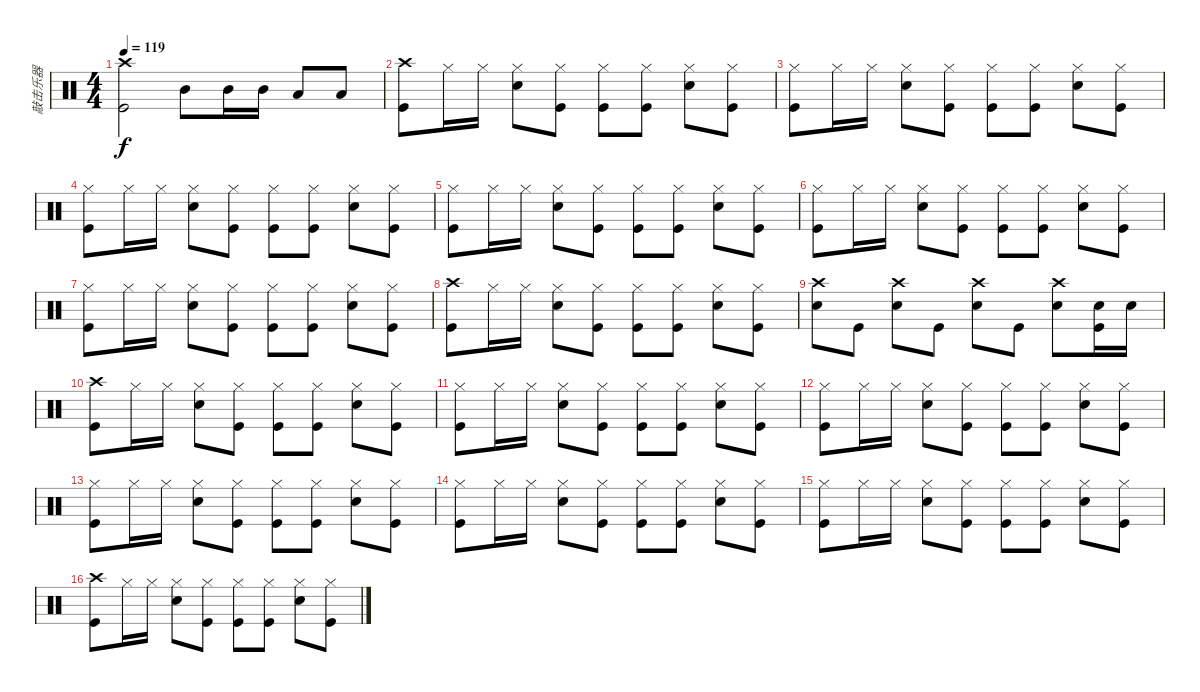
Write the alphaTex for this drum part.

\track ("敲击乐器" "敲击乐器") {instrument percussion}
\staff {score}
\articulation defaults
\ts (4 4)
\tempo 119
\clef neutral
\ks c
("Crash high (hit)" "Kick (hit)").2{dy f} "Mid Tom (hit)".8 "Mid Tom (hit)".16 "Mid Tom (hit)".16 "Low Tom (hit)".8 "Low Tom (hit)".8 |
("Crash high (hit)" "Kick (hit)").8 "Hi-Hat (closed)".16 "Hi-Hat (closed)".16 ("Hi-Hat (closed)" "Electric Snare (hit)").8 ("Hi-Hat (closed)" "Kick (hit)").8 ("Hi-Hat (closed)" "Kick (hit)").8 ("Hi-Hat (closed)" "Kick (hit)").8 ("Hi-Hat (closed)" "Electric Snare (hit)").8 ("Hi-Hat (closed)" "Kick (hit)").8 |
("Hi-Hat (closed)" "Kick (hit)").8 "Hi-Hat (closed)".16 "Hi-Hat (closed)".16 ("Hi-Hat (closed)" "Electric Snare (hit)").8 ("Hi-Hat (closed)" "Kick (hit)").8 ("Hi-Hat (closed)" "Kick (hit)").8 ("Hi-Hat (closed)" "Kick (hit)").8 ("Hi-Hat (closed)" "Electric Snare (hit)").8 ("Hi-Hat (closed)" "Kick (hit)").8 |
("Hi-Hat (closed)" "Kick (hit)").8 "Hi-Hat (closed)".16 "Hi-Hat (closed)".16 ("Hi-Hat (closed)" "Electric Snare (hit)").8 ("Hi-Hat (closed)" "Kick (hit)").8 ("Hi-Hat (closed)" "Kick (hit)").8 ("Hi-Hat (closed)" "Kick (hit)").8 ("Hi-Hat (closed)" "Electric Snare (hit)").8 ("Hi-Hat (closed)" "Kick (hit)").8 |
("Hi-Hat (closed)" "Kick (hit)").8 "Hi-Hat (closed)".16 "Hi-Hat (closed)".16 ("Hi-Hat (closed)" "Electric Snare (hit)").8 ("Hi-Hat (closed)" "Kick (hit)").8 ("Hi-Hat (closed)" "Kick (hit)").8 ("Hi-Hat (closed)" "Kick (hit)").8 ("Hi-Hat (closed)" "Electric Snare (hit)").8 ("Hi-Hat (closed)" "Kick (hit)").8 |
("Hi-Hat (closed)" "Kick (hit)").8 "Hi-Hat (closed)".16 "Hi-Hat (closed)".16 ("Hi-Hat (closed)" "Electric Snare (hit)").8 ("Hi-Hat (closed)" "Kick (hit)").8 ("Hi-Hat (closed)" "Kick (hit)").8 ("Hi-Hat (closed)" "Kick (hit)").8 ("Hi-Hat (closed)" "Electric Snare (hit)").8 ("Hi-Hat (closed)" "Kick (hit)").8 |
("Hi-Hat (closed)" "Kick (hit)").8 "Hi-Hat (closed)".16 "Hi-Hat (closed)".16 ("Hi-Hat (closed)" "Electric Snare (hit)").8 ("Hi-Hat (closed)" "Kick (hit)").8 ("Hi-Hat (closed)" "Kick (hit)").8 ("Hi-Hat (closed)" "Kick (hit)").8 ("Hi-Hat (closed)" "Electric Snare (hit)").8 ("Hi-Hat (closed)" "Kick (hit)").8 |
("Crash high (hit)" "Kick (hit)").8 "Hi-Hat (closed)".16 "Hi-Hat (closed)".16 ("Hi-Hat (closed)" "Electric Snare (hit)").8 ("Hi-Hat (closed)" "Kick (hit)").8 ("Hi-Hat (closed)" "Kick (hit)").8 ("Hi-Hat (closed)" "Kick (hit)").8 ("Hi-Hat (closed)" "Electric Snare (hit)").8 ("Hi-Hat (closed)" "Kick (hit)").8 |
("Crash high (hit)" "Electric Snare (hit)").8 "Kick (hit)".8 ("Crash high (hit)" "Electric Snare (hit)").8 "Kick (hit)".8 ("Crash high (hit)" "Electric Snare (hit)").8 "Kick (hit)".8 ("Crash high (hit)" "Electric Snare (hit)").8 ("Electric Snare (hit)" "Kick (hit)").16 "Electric Snare (hit)".16 |
("Crash high (hit)" "Kick (hit)").8 "Hi-Hat (closed)".16 "Hi-Hat (closed)".16 ("Hi-Hat (closed)" "Electric Snare (hit)").8 ("Hi-Hat (closed)" "Kick (hit)").8 ("Hi-Hat (closed)" "Kick (hit)").8 ("Hi-Hat (closed)" "Kick (hit)").8 ("Hi-Hat (closed)" "Electric Snare (hit)").8 ("Hi-Hat (closed)" "Kick (hit)").8 |
("Hi-Hat (closed)" "Kick (hit)").8 "Hi-Hat (closed)".16 "Hi-Hat (closed)".16 ("Hi-Hat (closed)" "Electric Snare (hit)").8 ("Hi-Hat (closed)" "Kick (hit)").8 ("Hi-Hat (closed)" "Kick (hit)").8 ("Hi-Hat (closed)" "Kick (hit)").8 ("Hi-Hat (closed)" "Electric Snare (hit)").8 ("Hi-Hat (closed)" "Kick (hit)").8 |
("Hi-Hat (closed)" "Kick (hit)").8 "Hi-Hat (closed)".16 "Hi-Hat (closed)".16 ("Hi-Hat (closed)" "Electric Snare (hit)").8 ("Hi-Hat (closed)" "Kick (hit)").8 ("Hi-Hat (closed)" "Kick (hit)").8 ("Hi-Hat (closed)" "Kick (hit)").8 ("Hi-Hat (closed)" "Electric Snare (hit)").8 ("Hi-Hat (closed)" "Kick (hit)").8 |
("Hi-Hat (closed)" "Kick (hit)").8 "Hi-Hat (closed)".16 "Hi-Hat (closed)".16 ("Hi-Hat (closed)" "Electric Snare (hit)").8 ("Hi-Hat (closed)" "Kick (hit)").8 ("Hi-Hat (closed)" "Kick (hit)").8 ("Hi-Hat (closed)" "Kick (hit)").8 ("Hi-Hat (closed)" "Electric Snare (hit)").8 ("Hi-Hat (closed)" "Kick (hit)").8 |
("Hi-Hat (closed)" "Kick (hit)").8 "Hi-Hat (closed)".16 "Hi-Hat (closed)".16 ("Hi-Hat (closed)" "Electric Snare (hit)").8 ("Hi-Hat (closed)" "Kick (hit)").8 ("Hi-Hat (closed)" "Kick (hit)").8 ("Hi-Hat (closed)" "Kick (hit)").8 ("Hi-Hat (closed)" "Electric Snare (hit)").8 ("Hi-Hat (closed)" "Kick (hit)").8 |
("Hi-Hat (closed)" "Kick (hit)").8 "Hi-Hat (closed)".16 "Hi-Hat (closed)".16 ("Hi-Hat (closed)" "Electric Snare (hit)").8 ("Hi-Hat (closed)" "Kick (hit)").8 ("Hi-Hat (closed)" "Kick (hit)").8 ("Hi-Hat (closed)" "Kick (hit)").8 ("Hi-Hat (closed)" "Electric Snare (hit)").8 ("Hi-Hat (closed)" "Kick (hit)").8 |
("Crash high (hit)" "Kick (hit)").8 "Hi-Hat (closed)".16 "Hi-Hat (closed)".16 ("Hi-Hat (closed)" "Electric Snare (hit)").8 ("Hi-Hat (closed)" "Kick (hit)").8 ("Hi-Hat (closed)" "Kick (hit)").8 ("Hi-Hat (closed)" "Kick (hit)").8 ("Hi-Hat (closed)" "Electric Snare (hit)").8 ("Hi-Hat (closed)" "Kick (hit)").8
